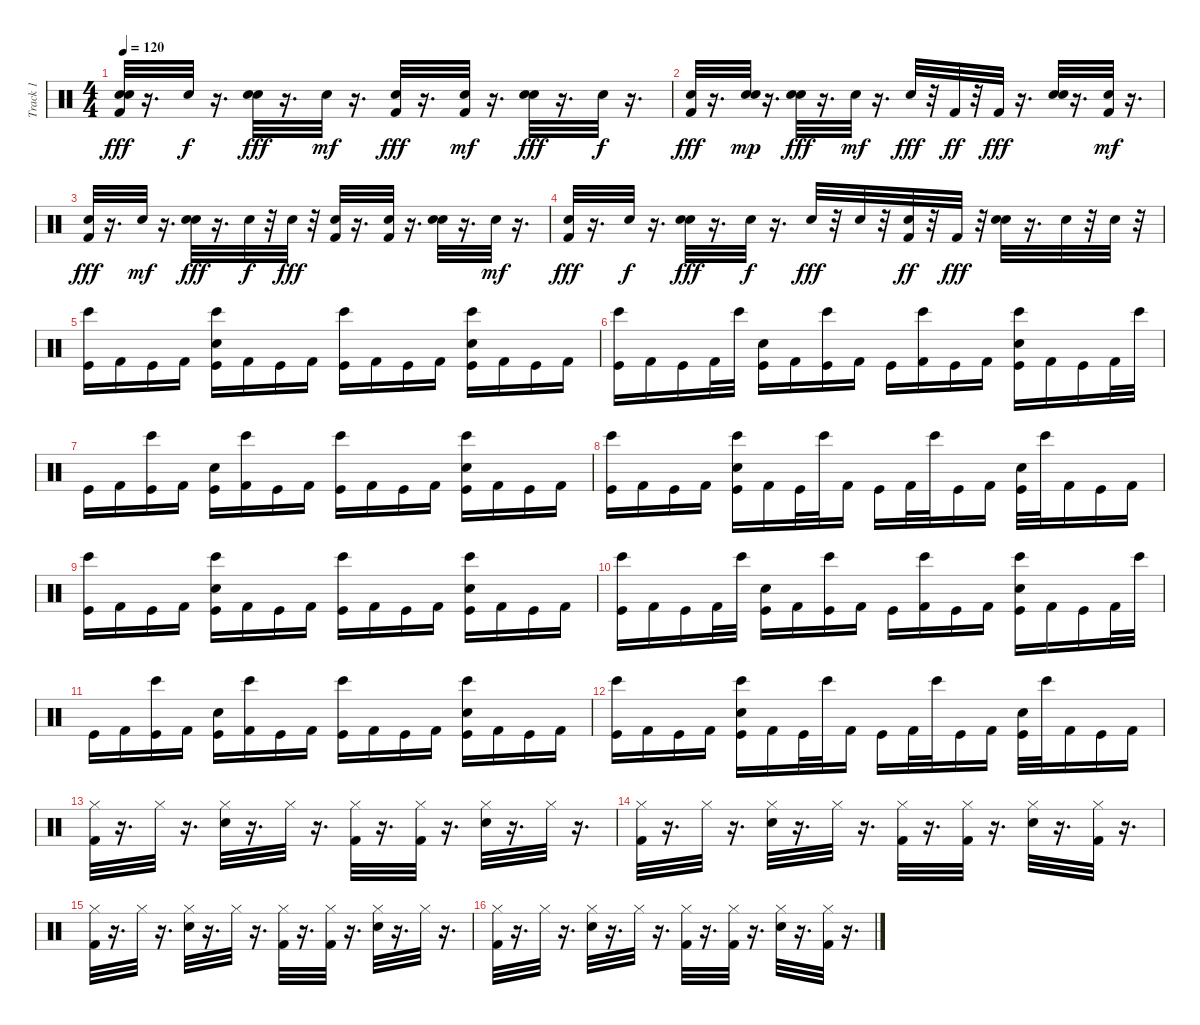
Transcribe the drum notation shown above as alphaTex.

\track ("Track 1" "Track 1") {instrument percussion}
\staff {score}
\articulation defaults
\ts (4 4)
\tempo 120
\clef neutral
\ks c
("Kick (hit) 2" "Snare (hit)" "Snare (hit) 2").32{dy fff} r.16{d} "Snare (hit) 2".32{dy f} r.16{d} ("Snare (hit) 2" "Snare (hit)").32{dy fff} r.16{d} "Snare (hit)".32{dy mf} r.16{d} ("Kick (hit) 2" "Snare (hit)").32{dy fff} r.16{d} ("Kick (hit) 2" "Snare (hit)").32{dy mf} r.16{d} ("Snare (hit)" "Snare (hit) 2").32{dy fff} r.16{d} "Snare (hit)".32{dy f} r.16{d} |
("Kick (hit) 2" "Snare (hit)").32{dy fff} r.16{d} ("Snare (hit) 2" "Snare (hit)").32{dy mp} r.16{d} ("Snare (hit) 2" "Snare (hit)").32{dy fff} r.16{d} "Snare (hit)".32{dy mf} r.16{d} "Snare (hit)".32{dy fff} r.32 "Kick (hit) 2".32{dy ff} r.32 "Kick (hit) 2".32{dy fff} r.16{d} ("Snare (hit) 2" "Snare (hit)").32 r.16{d} ("Kick (hit) 2" "Snare (hit)").32{dy mf} r.16{d} |
("Kick (hit) 2" "Snare (hit)").32{dy fff} r.16{d} "Snare (hit) 2".32{dy mf} r.16{d} ("Snare (hit) 2" "Snare (hit)").32{dy fff} r.16{d} "Snare (hit)".32{dy f} r.32 "Snare (hit) 2".32{dy fff} r.32 ("Kick (hit) 2" "Snare (hit)").32 r.16{d} ("Kick (hit) 2" "Snare (hit)").32 r.16{d} ("Snare (hit) 2" "Snare (hit)").32 r.16{d} "Snare (hit)".32{dy mf} r.16{d} |
("Kick (hit) 2" "Snare (hit)").32{dy fff} r.16{d} "Snare (hit)".32{dy f} r.16{d} ("Snare (hit) 2" "Snare (hit)").32{dy fff} r.16{d} "Snare (hit)".32{dy f} r.16{d} "Snare (hit)".32{dy fff} r.32 "Snare (hit) 2".32 r.32 ("Kick (hit) 2" "Snare (hit)").32{dy ff} r.32 "Kick (hit) 2".32{dy fff} r.32 ("Snare (hit) 2" "Snare (hit)").32 r.16{d} "Snare (hit) 2".32 r.32 "Snare (hit) 2".32 r.32 |
("Kick (hit)" "Bongo High (hit)").16 "Kick (hit) 2".16 "Kick (hit)".16 "Kick (hit) 2".16 ("Kick (hit)" "Bongo High (hit)" "Snare (hit) 2").16 "Kick (hit) 2".16 "Kick (hit)".16 "Kick (hit) 2".16 ("Kick (hit)" "Bongo High (hit)").16 "Kick (hit) 2".16 "Kick (hit)".16 "Kick (hit) 2".16 ("Kick (hit)" "Snare (hit) 2" "Bongo High (hit)").16 "Kick (hit) 2".16 "Kick (hit)".16 "Kick (hit) 2".16 |
("Kick (hit)" "Bongo High (hit)").16 "Kick (hit) 2".16 "Kick (hit)".16 "Kick (hit) 2".32 "Bongo High (hit)".32 ("Kick (hit)" "Snare (hit) 2").16 "Kick (hit) 2".16 ("Kick (hit)" "Bongo High (hit)").16 "Kick (hit) 2".16 "Kick (hit)".16 ("Kick (hit) 2" "Bongo High (hit)").16 "Kick (hit)".16 "Kick (hit) 2".16 ("Kick (hit)" "Snare (hit) 2" "Bongo High (hit)").16 "Kick (hit) 2".16 "Kick (hit)".16 "Kick (hit) 2".32 "Bongo High (hit)".32 |
"Kick (hit)".16 "Kick (hit) 2".16 ("Kick (hit)" "Bongo High (hit)").16 "Kick (hit) 2".16 ("Kick (hit)" "Snare (hit) 2").16 ("Kick (hit) 2" "Bongo High (hit)").16 "Kick (hit)".16 "Kick (hit) 2".16 ("Kick (hit)" "Bongo High (hit)").16 "Kick (hit) 2".16 "Kick (hit)".16 "Kick (hit) 2".16 ("Kick (hit)" "Snare (hit) 2" "Bongo High (hit)").16 "Kick (hit) 2".16 "Kick (hit)".16 "Kick (hit) 2".16 |
("Kick (hit)" "Bongo High (hit)").16 "Kick (hit) 2".16 "Kick (hit)".16 "Kick (hit) 2".16 ("Snare (hit) 2" "Kick (hit)" "Bongo High (hit)").16 "Kick (hit) 2".16 "Kick (hit)".32 "Bongo High (hit)".32 "Kick (hit) 2".16 "Kick (hit)".16 "Kick (hit) 2".32 "Bongo High (hit)".32 "Kick (hit)".16 "Kick (hit) 2".16 ("Kick (hit)" "Snare (hit) 2").32 "Bongo High (hit)".32 "Kick (hit) 2".16 "Kick (hit)".16 "Kick (hit) 2".16 |
("Kick (hit)" "Bongo High (hit)").16 "Kick (hit) 2".16 "Kick (hit)".16 "Kick (hit) 2".16 ("Kick (hit)" "Bongo High (hit)" "Snare (hit) 2").16 "Kick (hit) 2".16 "Kick (hit)".16 "Kick (hit) 2".16 ("Kick (hit)" "Bongo High (hit)").16 "Kick (hit) 2".16 "Kick (hit)".16 "Kick (hit) 2".16 ("Kick (hit)" "Snare (hit) 2" "Bongo High (hit)").16 "Kick (hit) 2".16 "Kick (hit)".16 "Kick (hit) 2".16 |
("Kick (hit)" "Bongo High (hit)").16 "Kick (hit) 2".16 "Kick (hit)".16 "Kick (hit) 2".32 "Bongo High (hit)".32 ("Kick (hit)" "Snare (hit) 2").16 "Kick (hit) 2".16 ("Kick (hit)" "Bongo High (hit)").16 "Kick (hit) 2".16 "Kick (hit)".16 ("Kick (hit) 2" "Bongo High (hit)").16 "Kick (hit)".16 "Kick (hit) 2".16 ("Kick (hit)" "Snare (hit) 2" "Bongo High (hit)").16 "Kick (hit) 2".16 "Kick (hit)".16 "Kick (hit) 2".32 "Bongo High (hit)".32 |
"Kick (hit)".16 "Kick (hit) 2".16 ("Kick (hit)" "Bongo High (hit)").16 "Kick (hit) 2".16 ("Kick (hit)" "Snare (hit) 2").16 ("Kick (hit) 2" "Bongo High (hit)").16 "Kick (hit)".16 "Kick (hit) 2".16 ("Kick (hit)" "Bongo High (hit)").16 "Kick (hit) 2".16 "Kick (hit)".16 "Kick (hit) 2".16 ("Kick (hit)" "Snare (hit) 2" "Bongo High (hit)").16 "Kick (hit) 2".16 "Kick (hit)".16 "Kick (hit) 2".16 |
("Kick (hit)" "Bongo High (hit)").16 "Kick (hit) 2".16 "Kick (hit)".16 "Kick (hit) 2".16 ("Snare (hit) 2" "Kick (hit)" "Bongo High (hit)").16 "Kick (hit) 2".16 "Kick (hit)".32 "Bongo High (hit)".32 "Kick (hit) 2".16 "Kick (hit)".16 "Kick (hit) 2".32 "Bongo High (hit)".32 "Kick (hit)".16 "Kick (hit) 2".16 ("Kick (hit)" "Snare (hit) 2").32 "Bongo High (hit)".32 "Kick (hit) 2".16 "Kick (hit)".16 "Kick (hit) 2".16 |
("Kick (hit) 2" "Hi-Hat (closed)").32 r.16{d} "Hi-Hat (closed)".32 r.16{d} ("Hi-Hat (closed)" "Snare (hit) 2").32 r.16{d} "Hi-Hat (closed)".32 r.16{d} ("Kick (hit) 2" "Hi-Hat (closed)").32 r.16{d} ("Hi-Hat (closed)" "Kick (hit) 2").32 r.16{d} ("Hi-Hat (closed)" "Snare (hit) 2").32 r.16{d} "Hi-Hat (closed)".32 r.16{d} |
("Hi-Hat (closed)" "Kick (hit) 2").32 r.16{d} "Hi-Hat (closed)".32 r.16{d} ("Hi-Hat (closed)" "Snare (hit) 2").32 r.16{d} "Hi-Hat (closed)".32 r.16{d} ("Kick (hit) 2" "Hi-Hat (closed)").32 r.16{d} ("Hi-Hat (closed)" "Kick (hit) 2").32 r.16{d} ("Hi-Hat (closed)" "Snare (hit) 2").32 r.16{d} ("Hi-Hat (closed)" "Kick (hit) 2").32 r.16{d} |
("Kick (hit) 2" "Hi-Hat (closed)").32 r.16{d} "Hi-Hat (closed)".32 r.16{d} ("Hi-Hat (closed)" "Snare (hit) 2").32 r.16{d} "Hi-Hat (closed)".32 r.16{d} ("Kick (hit) 2" "Hi-Hat (closed)").32 r.16{d} ("Hi-Hat (closed)" "Kick (hit) 2").32 r.16{d} ("Hi-Hat (closed)" "Snare (hit) 2").32 r.16{d} "Hi-Hat (closed)".32 r.16{d} |
("Hi-Hat (closed)" "Kick (hit) 2").32 r.16{d} "Hi-Hat (closed)".32 r.16{d} ("Hi-Hat (closed)" "Snare (hit) 2").32 r.16{d} "Hi-Hat (closed)".32 r.16{d} ("Kick (hit) 2" "Hi-Hat (closed)").32 r.16{d} ("Hi-Hat (closed)" "Kick (hit) 2").32 r.16{d} ("Hi-Hat (closed)" "Snare (hit) 2").32 r.16{d} ("Hi-Hat (closed)" "Kick (hit) 2").32 r.16{d}
